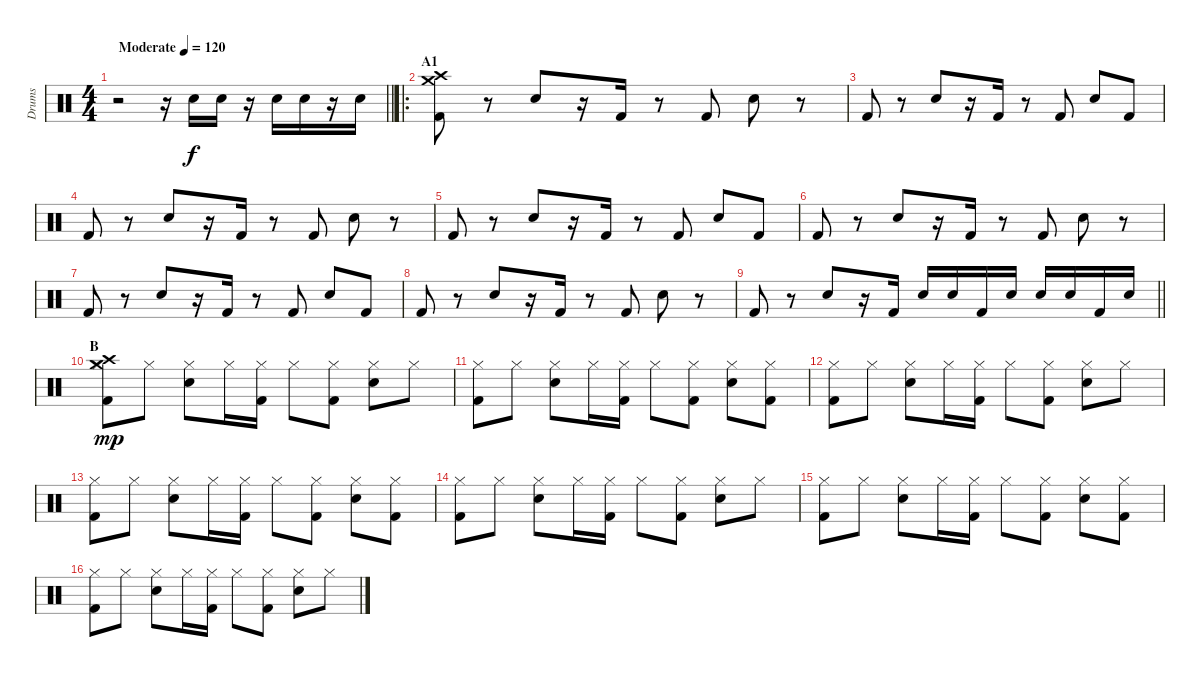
\track ("Drums" "Drums") {instrument percussion}
\staff {score}
\articulation defaults
\ts (4 4)
\tempo (120 "Moderate")
\clef neutral
\barLineRight lightlight
\ks c
r.2{dy f} r.16 "Electric Snare (hit)".16 "Electric Snare (hit)".16 r.16 "Electric Snare (hit)".16 "Electric Snare (hit)".16 r.16 "Electric Snare (hit)".16 |
\ro
\section ("" "A1")
("Crash high (hit)" "Crash medium (hit)" "Kick (hit) 2").8 r.8 "Electric Snare (hit)".8 r.16 "Kick (hit) 2".16 r.8 "Kick (hit) 2".8 "Electric Snare (hit)".8 r.8 |
"Kick (hit) 2".8 r.8 "Electric Snare (hit)".8 r.16 "Kick (hit) 2".16 r.8 "Kick (hit) 2".8 "Electric Snare (hit)".8 "Kick (hit) 2".8 |
"Kick (hit) 2".8 r.8 "Electric Snare (hit)".8 r.16 "Kick (hit) 2".16 r.8 "Kick (hit) 2".8 "Electric Snare (hit)".8 r.8 |
"Kick (hit) 2".8 r.8 "Electric Snare (hit)".8 r.16 "Kick (hit) 2".16 r.8 "Kick (hit) 2".8 "Electric Snare (hit)".8 "Kick (hit) 2".8 |
"Kick (hit) 2".8 r.8 "Electric Snare (hit)".8 r.16 "Kick (hit) 2".16 r.8 "Kick (hit) 2".8 "Electric Snare (hit)".8 r.8 |
"Kick (hit) 2".8 r.8 "Electric Snare (hit)".8 r.16 "Kick (hit) 2".16 r.8 "Kick (hit) 2".8 "Electric Snare (hit)".8 "Kick (hit) 2".8 |
"Kick (hit) 2".8 r.8 "Electric Snare (hit)".8 r.16 "Kick (hit) 2".16 r.8 "Kick (hit) 2".8 "Electric Snare (hit)".8 r.8 |
\barLineRight lightlight "Kick (hit) 2".8
r.8 "Electric Snare (hit)".8 r.16 "Kick (hit) 2".16 "Electric Snare (hit)".16 "Electric Snare (hit)".16 "Kick (hit) 2".16 "Electric Snare (hit)".16 "Electric Snare (hit)".16 "Electric Snare (hit)".16 "Kick (hit) 2".16 "Electric Snare (hit)".16 |
\section ("" "B")
("Hi-Hat (closed)" "Crash medium (hit)" "Crash high (hit)" "Kick (hit) 2").8{dy mp} "Hi-Hat (closed)".8 ("Hi-Hat (closed)" "Electric Snare (hit)").8 "Hi-Hat (closed)".16 ("Hi-Hat (closed)" "Kick (hit) 2").16 "Hi-Hat (closed)".8 ("Hi-Hat (closed)" "Kick (hit) 2").8 ("Hi-Hat (closed)" "Electric Snare (hit)").8 "Hi-Hat (closed)".8 |
("Hi-Hat (closed)" "Kick (hit) 2").8 "Hi-Hat (closed)".8 ("Hi-Hat (closed)" "Electric Snare (hit)").8 "Hi-Hat (closed)".16 ("Hi-Hat (closed)" "Kick (hit) 2").16 "Hi-Hat (closed)".8 ("Hi-Hat (closed)" "Kick (hit) 2").8 ("Hi-Hat (closed)" "Electric Snare (hit)").8 ("Hi-Hat (closed)" "Kick (hit) 2").8 |
("Hi-Hat (closed)" "Kick (hit) 2").8 "Hi-Hat (closed)".8 ("Hi-Hat (closed)" "Electric Snare (hit)").8 "Hi-Hat (closed)".16 ("Hi-Hat (closed)" "Kick (hit) 2").16 "Hi-Hat (closed)".8 ("Hi-Hat (closed)" "Kick (hit) 2").8 ("Hi-Hat (closed)" "Electric Snare (hit)").8 "Hi-Hat (closed)".8 |
("Hi-Hat (closed)" "Kick (hit) 2").8 "Hi-Hat (closed)".8 ("Hi-Hat (closed)" "Electric Snare (hit)").8 "Hi-Hat (closed)".16 ("Hi-Hat (closed)" "Kick (hit) 2").16 "Hi-Hat (closed)".8 ("Hi-Hat (closed)" "Kick (hit) 2").8 ("Hi-Hat (closed)" "Electric Snare (hit)").8 ("Hi-Hat (closed)" "Kick (hit) 2").8 |
("Hi-Hat (closed)" "Kick (hit) 2").8 "Hi-Hat (closed)".8 ("Hi-Hat (closed)" "Electric Snare (hit)").8 "Hi-Hat (closed)".16 ("Hi-Hat (closed)" "Kick (hit) 2").16 "Hi-Hat (closed)".8 ("Hi-Hat (closed)" "Kick (hit) 2").8 ("Hi-Hat (closed)" "Electric Snare (hit)").8 "Hi-Hat (closed)".8 |
("Hi-Hat (closed)" "Kick (hit) 2").8 "Hi-Hat (closed)".8 ("Hi-Hat (closed)" "Electric Snare (hit)").8 "Hi-Hat (closed)".16 ("Hi-Hat (closed)" "Kick (hit) 2").16 "Hi-Hat (closed)".8 ("Hi-Hat (closed)" "Kick (hit) 2").8 ("Hi-Hat (closed)" "Electric Snare (hit)").8 ("Hi-Hat (closed)" "Kick (hit) 2").8 |
("Hi-Hat (closed)" "Kick (hit) 2").8 "Hi-Hat (closed)".8 ("Hi-Hat (closed)" "Electric Snare (hit)").8 "Hi-Hat (closed)".16 ("Hi-Hat (closed)" "Kick (hit) 2").16 "Hi-Hat (closed)".8 ("Hi-Hat (closed)" "Kick (hit) 2").8 ("Hi-Hat (closed)" "Electric Snare (hit)").8 "Hi-Hat (closed)".8
